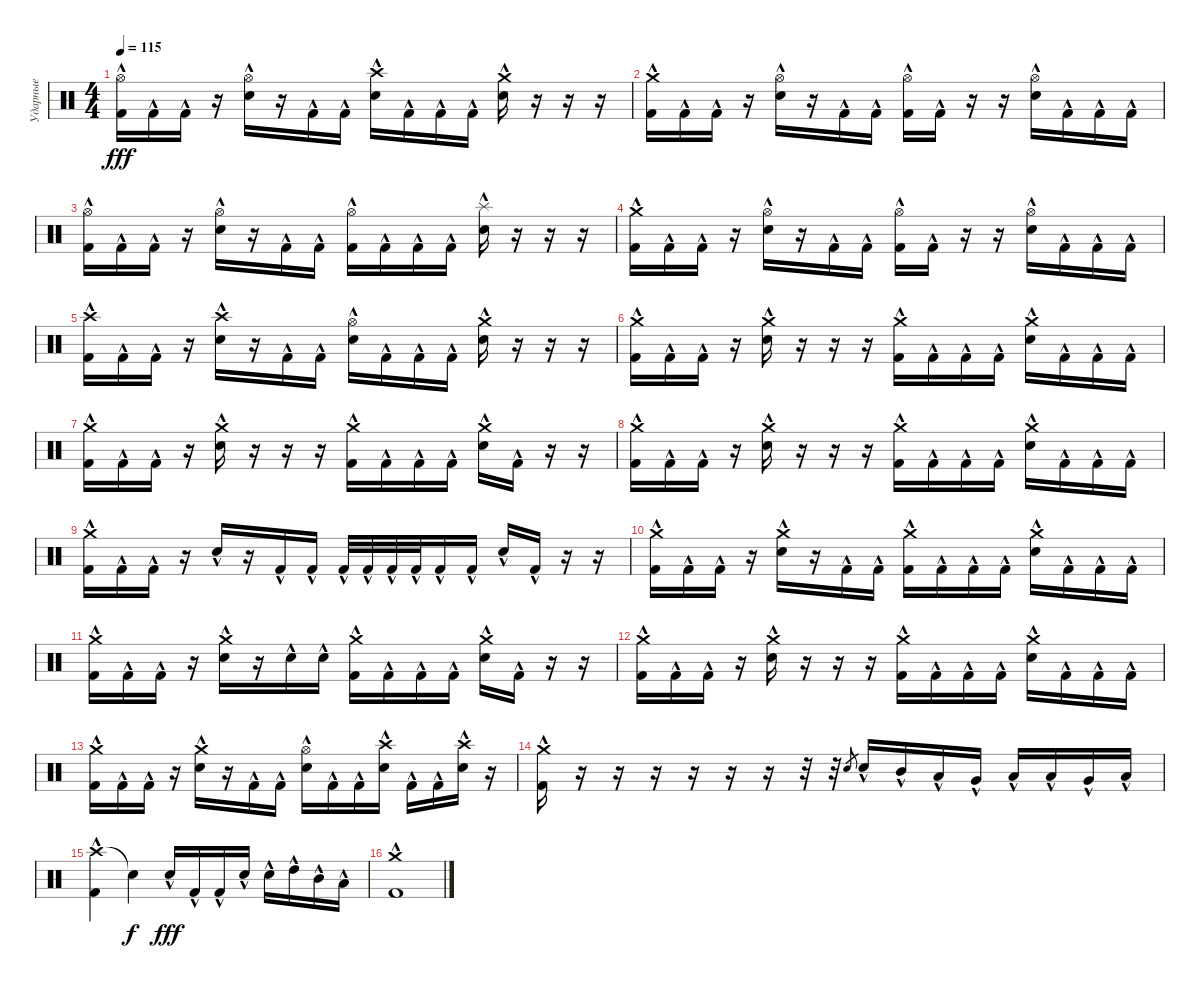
\track ("Ударные" "Ударные") {instrument percussion}
\staff
\articulation defaults
\ts (4 4)
\tempo 115
\clef neutral
\ks c
("Hi-Hat (open)" "Kick (hit) 2"{hac}).16{dy fff} "Kick (hit) 2"{hac}.16 "Kick (hit) 2"{hac}.16 r.16 ("Hi-Hat (open)" "Snare (hit) 2"{hac}).16 r.16 "Kick (hit) 2"{hac}.16 "Kick (hit) 2"{hac}.16 ("Crash high (hit)" "Snare (hit) 2"{hac}).16 "Kick (hit) 2"{hac}.16 "Kick (hit) 2"{hac}.16 "Kick (hit) 2"{hac}.16 ("Crash medium (hit)" "Snare (hit) 2"{hac}).16 r.16 r.16 r.16 |
("Crash medium (hit)" "Kick (hit) 2"{hac}).16 "Kick (hit) 2"{hac}.16 "Kick (hit) 2"{hac}.16 r.16 ("Hi-Hat (open)" "Snare (hit) 2"{hac}).16 r.16 "Kick (hit) 2"{hac}.16 "Kick (hit) 2"{hac}.16 ("Hi-Hat (open)" "Kick (hit) 2"{hac}).16 "Kick (hit) 2"{hac}.16 r.16 r.16 ("Hi-Hat (open)" "Snare (hit) 2"{hac}).16 "Kick (hit) 2"{hac}.16 "Kick (hit) 2"{hac}.16 "Kick (hit) 2"{hac}.16 |
("Hi-Hat (open)" "Kick (hit) 2"{hac}).16 "Kick (hit) 2"{hac}.16 "Kick (hit) 2"{hac}.16 r.16 ("Hi-Hat (open)" "Snare (hit) 2"{hac}).16 r.16 "Kick (hit) 2"{hac}.16 "Kick (hit) 2"{hac}.16 ("Hi-Hat (open)" "Kick (hit) 2"{hac}).16 "Kick (hit) 2"{hac}.16 "Kick (hit) 2"{hac}.16 "Kick (hit) 2"{hac}.16 ("Splash (hit)"{hac} "Snare (hit) 2"{hac}).16 r.16 r.16 r.16 |
("Crash medium (hit)" "Kick (hit) 2"{hac}).16 "Kick (hit) 2"{hac}.16 "Kick (hit) 2"{hac}.16 r.16 ("Hi-Hat (open)" "Snare (hit) 2"{hac}).16 r.16 "Kick (hit) 2"{hac}.16 "Kick (hit) 2"{hac}.16 ("Hi-Hat (open)" "Kick (hit) 2"{hac}).16 "Kick (hit) 2"{hac}.16 r.16 r.16 ("Hi-Hat (open)" "Snare (hit) 2"{hac}).16 "Kick (hit) 2"{hac}.16 "Kick (hit) 2"{hac}.16 "Kick (hit) 2"{hac}.16 |
("Crash high (hit)" "Kick (hit) 2"{hac}).16 "Kick (hit) 2"{hac}.16 "Kick (hit) 2"{hac}.16 r.16 ("Crash high (hit)" "Snare (hit) 2"{hac}).16 r.16 "Kick (hit) 2"{hac}.16 "Kick (hit) 2"{hac}.16 ("Hi-Hat (open)" "Snare (hit) 2"{hac}).16 "Kick (hit) 2"{hac}.16 "Kick (hit) 2"{hac}.16 "Kick (hit) 2"{hac}.16 ("Crash medium (hit)" "Snare (hit) 2"{hac}).16 r.16 r.16 r.16 |
("Crash medium (hit)" "Kick (hit) 2"{hac}).16 "Kick (hit) 2"{hac}.16 "Kick (hit) 2"{hac}.16 r.16 ("Crash medium (hit)" "Snare (hit) 2"{hac}).16 r.16 r.16 r.16 ("Crash medium (hit)" "Kick (hit) 2"{hac}).16 "Kick (hit) 2"{hac}.16 "Kick (hit) 2"{hac}.16 "Kick (hit) 2"{hac}.16 ("Crash medium (hit)" "Snare (hit) 2"{hac}).16 "Kick (hit) 2"{hac}.16 "Kick (hit) 2"{hac}.16 "Kick (hit) 2"{hac}.16 |
("Crash medium (hit)" "Kick (hit) 2"{hac}).16 "Kick (hit) 2"{hac}.16 "Kick (hit) 2"{hac}.16 r.16 ("Crash medium (hit)" "Snare (hit) 2"{hac}).16 r.16 r.16 r.16 ("Crash medium (hit)" "Kick (hit) 2"{hac}).16 "Kick (hit) 2"{hac}.16 "Kick (hit) 2"{hac}.16 "Kick (hit) 2"{hac}.16 ("Crash medium (hit)" "Snare (hit) 2"{hac}).16 "Kick (hit) 2"{hac}.16 r.16 r.16 |
("Crash medium (hit)" "Kick (hit) 2"{hac}).16 "Kick (hit) 2"{hac}.16 "Kick (hit) 2"{hac}.16 r.16 ("Crash medium (hit)" "Snare (hit) 2"{hac}).16 r.16 r.16 r.16 ("Crash medium (hit)" "Kick (hit) 2"{hac}).16 "Kick (hit) 2"{hac}.16 "Kick (hit) 2"{hac}.16 "Kick (hit) 2"{hac}.16 ("Crash medium (hit)" "Snare (hit) 2"{hac}).16 "Kick (hit) 2"{hac}.16 "Kick (hit) 2"{hac}.16 "Kick (hit) 2"{hac}.16 |
("Crash medium (hit)" "Kick (hit) 2"{hac}).16 "Kick (hit) 2"{hac}.16 "Kick (hit) 2"{hac}.16 r.16 "Snare (hit) 2"{hac}.16 r.16 "Kick (hit) 2"{hac}.16 "Kick (hit) 2"{hac}.16 "Kick (hit) 2"{hac}.32 "Kick (hit) 2"{hac}.32 "Kick (hit) 2"{hac}.32 "Kick (hit) 2"{hac}.32 "Kick (hit) 2"{hac}.16 "Kick (hit) 2"{hac}.16 "Snare (hit) 2"{hac}.16 "Kick (hit) 2"{hac}.16 r.16 r.16 |
("Crash medium (hit)" "Kick (hit) 2"{hac}).16 "Kick (hit) 2"{hac}.16 "Kick (hit) 2"{hac}.16 r.16 ("Crash medium (hit)" "Snare (hit) 2"{hac}).16 r.16 "Kick (hit) 2"{hac}.16 "Kick (hit) 2"{hac}.16 ("Crash medium (hit)" "Kick (hit) 2"{hac}).16 "Kick (hit) 2"{hac}.16 "Kick (hit) 2"{hac}.16 "Kick (hit) 2"{hac}.16 ("Crash medium (hit)" "Snare (hit) 2"{hac}).16 "Kick (hit) 2"{hac}.16 "Kick (hit) 2"{hac}.16 "Kick (hit) 2"{hac}.16 |
("Crash medium (hit)" "Kick (hit) 2"{hac}).16 "Kick (hit) 2"{hac}.16 "Kick (hit) 2"{hac}.16 r.16 ("Crash medium (hit)" "Snare (hit) 2"{hac}).16 r.16 "Snare (hit) 2"{hac}.16 "Snare (hit) 2"{hac}.16 ("Crash medium (hit)" "Kick (hit) 2"{hac}).16 "Kick (hit) 2"{hac}.16 "Kick (hit) 2"{hac}.16 "Kick (hit) 2"{hac}.16 ("Crash medium (hit)" "Snare (hit) 2"{hac}).16 "Kick (hit) 2"{hac}.16 r.16 r.16 |
("Crash medium (hit)" "Kick (hit) 2"{hac}).16 "Kick (hit) 2"{hac}.16 "Kick (hit) 2"{hac}.16 r.16 ("Crash medium (hit)" "Snare (hit) 2"{hac}).16 r.16 r.16 r.16 ("Crash medium (hit)" "Kick (hit) 2"{hac}).16 "Kick (hit) 2"{hac}.16 "Kick (hit) 2"{hac}.16 "Kick (hit) 2"{hac}.16 ("Crash medium (hit)" "Snare (hit) 2"{hac}).16 "Kick (hit) 2"{hac}.16 "Kick (hit) 2"{hac}.16 "Kick (hit) 2"{hac}.16 |
("Crash medium (hit)" "Kick (hit) 2"{hac}).16 "Kick (hit) 2"{hac}.16 "Kick (hit) 2"{hac}.16 r.16 ("Crash medium (hit)" "Snare (hit) 2"{hac}).16 r.16 "Kick (hit) 2"{hac}.16 "Kick (hit) 2"{hac}.16 ("Hi-Hat (open)" "Snare (hit) 2"{hac}).16 "Kick (hit) 2"{hac}.16 "Kick (hit) 2"{hac}.16 ("Crash high (hit)" "Snare (hit) 2"{hac}).16 "Kick (hit) 2"{hac}.16 "Kick (hit) 2"{hac}.16 ("Crash high (hit)" "Snare (hit) 2"{hac}).16 r.16 |
("Crash medium (hit)" "Kick (hit) 2"{hac}).16 r.16 r.16 r.16 r.16 r.16 r.16 r.32 r.32 "Snare (hit) 2".8{gr} "Snare (hit) 2"{hac}.16 "Mid Tom (hit)"{hac}.16 "Low Tom (hit)"{hac}.16 "Very Low Tom (hit)"{hac}.16 "Low Floor Tom (hit)"{hac}.16 "Low Tom (hit)"{hac}.16 "Very Low Tom (hit)"{hac}.16 "Low Floor Tom (hit)"{hac}.16 |
("Crash high (hit)" "Kick (hit) 2"{hac}).4 "Snare (hit)"{t}.4{dy f} "Snare (hit) 2"{hac}.16{dy fff} "Kick (hit) 2"{hac}.16 "Kick (hit) 2"{hac}.16 "Snare (hit) 2"{hac}.16 "Snare (hit) 2"{hac}.16 "High Tom (hit)"{hac}.16 "Mid Tom (hit)"{hac}.16 "Low Tom (hit)"{hac}.16 |
("Crash medium (hit)" "Kick (hit) 2"{hac}).1
